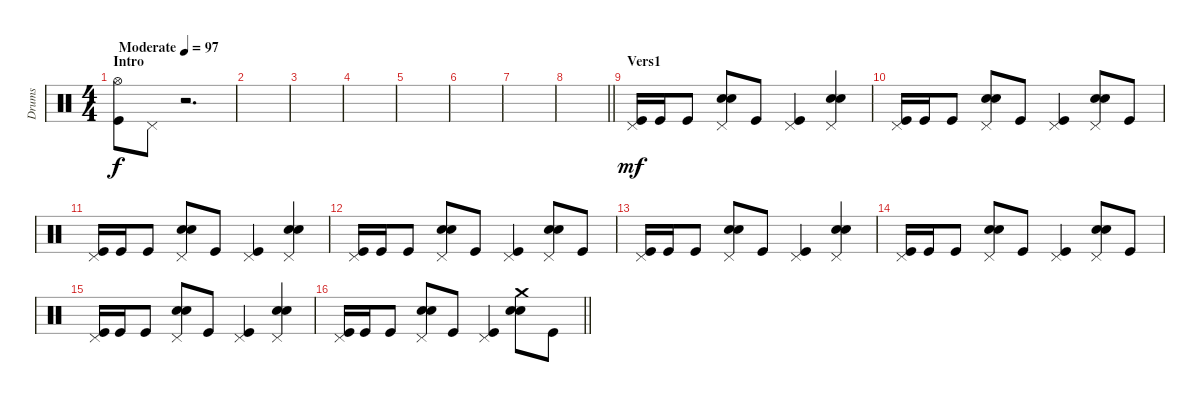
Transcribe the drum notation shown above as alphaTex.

\track ("Drums" "Drums") {instrument percussion}
\staff {score}
\articulation defaults
\ts (4 4)
\section ("" "Intro")
\tempo (97 "Moderate")
\clef neutral
\ks c
("Hi-Hat (open)" "Kick (hit)").8{dy f} "Pedal Hi-Hat (hit)".8 r.2{d} |
|
|
|
|
|
|
\barLineRight lightlight
|
\section ("" "Vers1")
("Pedal Hi-Hat (hit)" "Kick (hit)").16{dy mf} "Kick (hit)".16 "Kick (hit)".8 ("Pedal Hi-Hat (hit)" "Electric Snare (hit)" "Snare (hit) 2").8 "Kick (hit)".8 ("Pedal Hi-Hat (hit)" "Kick (hit)").4 ("Pedal Hi-Hat (hit)" "Electric Snare (hit)" "Snare (hit) 2").4 |
("Pedal Hi-Hat (hit)" "Kick (hit)").16 "Kick (hit)".16 "Kick (hit)".8 ("Pedal Hi-Hat (hit)" "Electric Snare (hit)" "Snare (hit) 2").8 "Kick (hit)".8 ("Pedal Hi-Hat (hit)" "Kick (hit)").4 ("Pedal Hi-Hat (hit)" "Electric Snare (hit)" "Snare (hit) 2").8 "Kick (hit)".8 |
("Pedal Hi-Hat (hit)" "Kick (hit)").16 "Kick (hit)".16 "Kick (hit)".8 ("Pedal Hi-Hat (hit)" "Electric Snare (hit)" "Snare (hit) 2").8 "Kick (hit)".8 ("Pedal Hi-Hat (hit)" "Kick (hit)").4 ("Pedal Hi-Hat (hit)" "Electric Snare (hit)" "Snare (hit) 2").4 |
("Pedal Hi-Hat (hit)" "Kick (hit)").16 "Kick (hit)".16 "Kick (hit)".8 ("Pedal Hi-Hat (hit)" "Electric Snare (hit)" "Snare (hit) 2").8 "Kick (hit)".8 ("Pedal Hi-Hat (hit)" "Kick (hit)").4 ("Pedal Hi-Hat (hit)" "Electric Snare (hit)" "Snare (hit) 2").8 "Kick (hit)".8 |
("Pedal Hi-Hat (hit)" "Kick (hit)").16 "Kick (hit)".16 "Kick (hit)".8 ("Pedal Hi-Hat (hit)" "Electric Snare (hit)" "Snare (hit) 2").8 "Kick (hit)".8 ("Pedal Hi-Hat (hit)" "Kick (hit)").4 ("Pedal Hi-Hat (hit)" "Electric Snare (hit)" "Snare (hit) 2").4 |
("Pedal Hi-Hat (hit)" "Kick (hit)").16 "Kick (hit)".16 "Kick (hit)".8 ("Pedal Hi-Hat (hit)" "Electric Snare (hit)" "Snare (hit) 2").8 "Kick (hit)".8 ("Pedal Hi-Hat (hit)" "Kick (hit)").4 ("Pedal Hi-Hat (hit)" "Electric Snare (hit)" "Snare (hit) 2").8 "Kick (hit)".8 |
("Pedal Hi-Hat (hit)" "Kick (hit)").16 "Kick (hit)".16 "Kick (hit)".8 ("Pedal Hi-Hat (hit)" "Electric Snare (hit)" "Snare (hit) 2").8 "Kick (hit)".8 ("Pedal Hi-Hat (hit)" "Kick (hit)").4 ("Pedal Hi-Hat (hit)" "Electric Snare (hit)" "Snare (hit) 2").4 |
\barLineRight lightlight
("Pedal Hi-Hat (hit)" "Kick (hit)").16 "Kick (hit)".16 "Kick (hit)".8 ("Pedal Hi-Hat (hit)" "Electric Snare (hit)" "Snare (hit) 2").8 "Kick (hit)".8 ("Pedal Hi-Hat (hit)" "Kick (hit)").4 ("Crash medium (hit)" "Electric Snare (hit)" "Snare (hit) 2").8 "Kick (hit)".8
